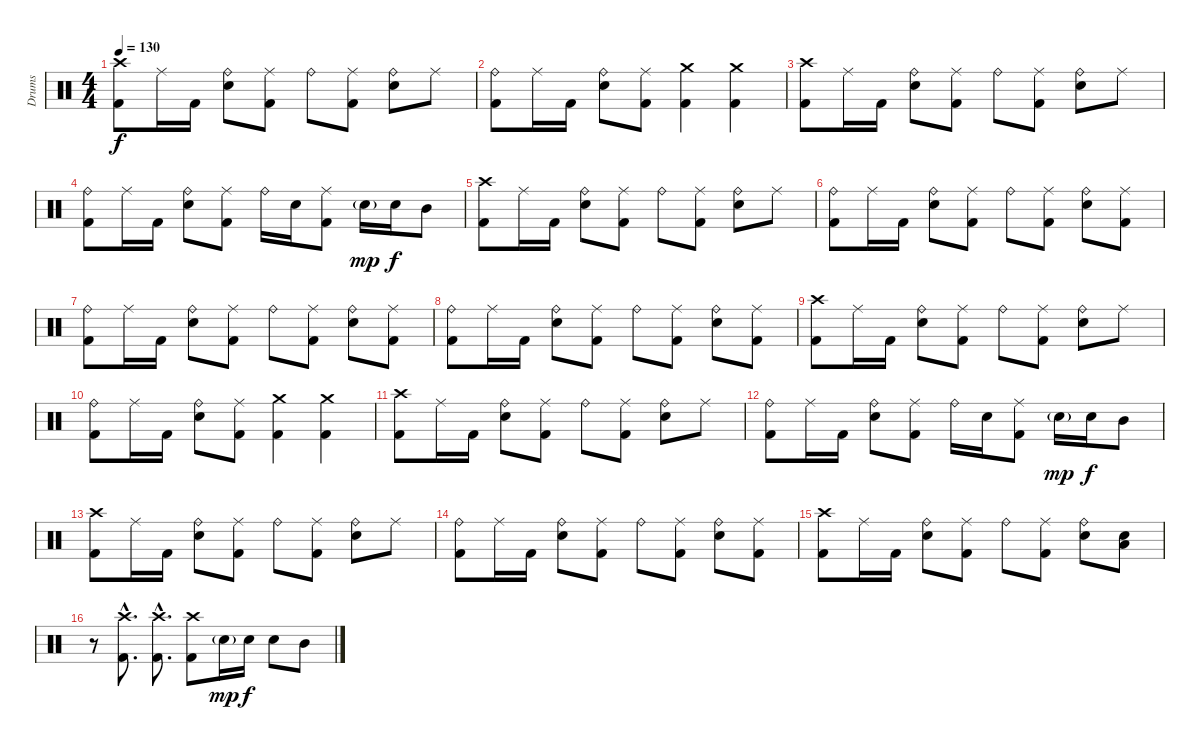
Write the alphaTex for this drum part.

\track ("Drums" "Drums") {instrument percussion}
\staff {score}
\articulation defaults
\ts (4 4)
\tempo 130
\clef neutral
\ks c
("Crash high (hit)" "Kick (hit) 2").8{dy f} "Ride (middle)".16 "Kick (hit) 2".16 ("Ride (bell)" "Electric Snare (hit)").8 ("Ride (middle)" "Kick (hit) 2").8 "Ride (bell)".8 ("Ride (middle)" "Kick (hit) 2").8 ("Ride (bell)" "Electric Snare (hit)").8 "Ride (middle)".8 |
("Ride (bell)" "Kick (hit) 2").8 "Ride (middle)".16 "Kick (hit) 2".16 ("Ride (bell)" "Electric Snare (hit)").8 ("Ride (middle)" "Kick (hit) 2").8 ("Crash medium (hit)" "Kick (hit) 2").4 ("Crash medium (hit)" "Kick (hit) 2").4 |
("Crash high (hit)" "Kick (hit) 2").8 "Ride (middle)".16 "Kick (hit) 2".16 ("Ride (bell)" "Electric Snare (hit)").8 ("Ride (middle)" "Kick (hit) 2").8 "Ride (bell)".8 ("Ride (middle)" "Kick (hit) 2").8 ("Ride (bell)" "Electric Snare (hit)").8 "Ride (middle)".8 |
("Ride (bell)" "Kick (hit) 2").8 "Ride (middle)".16 "Kick (hit) 2".16 ("Ride (bell)" "Electric Snare (hit)").8 ("Ride (middle)" "Kick (hit) 2").8 "Ride (bell)".16 "Electric Snare (hit)".16 ("Ride (middle)" "Kick (hit) 2").8 "Electric Snare (hit)"{g}.16{dy mp} "Electric Snare (hit)".16{dy f} "Mid Tom (hit)".8 |
("Crash high (hit)" "Kick (hit) 2").8 "Ride (middle)".16 "Kick (hit) 2".16 ("Ride (bell)" "Electric Snare (hit)").8 ("Ride (middle)" "Kick (hit) 2").8 "Ride (bell)".8 ("Ride (middle)" "Kick (hit) 2").8 ("Ride (bell)" "Electric Snare (hit)").8 "Ride (middle)".8 |
("Ride (bell)" "Kick (hit) 2").8 "Ride (middle)".16 "Kick (hit) 2".16 ("Ride (bell)" "Electric Snare (hit)").8 ("Ride (middle)" "Kick (hit) 2").8 "Ride (bell)".8 ("Ride (middle)" "Kick (hit) 2").8 ("Ride (bell)" "Electric Snare (hit)").8 ("Ride (middle)" "Kick (hit) 2").8 |
("Ride (bell)" "Kick (hit) 2").8 "Ride (middle)".16 "Kick (hit) 2".16 ("Ride (bell)" "Electric Snare (hit)").8 ("Ride (middle)" "Kick (hit) 2").8 "Ride (bell)".8 ("Ride (middle)" "Kick (hit) 2").8 ("Ride (bell)" "Electric Snare (hit)").8 ("Ride (middle)" "Kick (hit) 2").8 |
("Ride (bell)" "Kick (hit) 2").8 "Ride (middle)".16 "Kick (hit) 2".16 ("Ride (bell)" "Electric Snare (hit)").8 ("Ride (middle)" "Kick (hit) 2").8 "Ride (bell)".8 ("Ride (middle)" "Kick (hit) 2").8 ("Ride (bell)" "Electric Snare (hit)").8 ("Ride (middle)" "Kick (hit) 2").8 |
("Crash high (hit)" "Kick (hit) 2").8 "Ride (middle)".16 "Kick (hit) 2".16 ("Ride (bell)" "Electric Snare (hit)").8 ("Ride (middle)" "Kick (hit) 2").8 "Ride (bell)".8 ("Ride (middle)" "Kick (hit) 2").8 ("Ride (bell)" "Electric Snare (hit)").8 "Ride (middle)".8 |
("Ride (bell)" "Kick (hit) 2").8 "Ride (middle)".16 "Kick (hit) 2".16 ("Ride (bell)" "Electric Snare (hit)").8 ("Ride (middle)" "Kick (hit) 2").8 ("Crash medium (hit)" "Kick (hit) 2").4 ("Crash medium (hit)" "Kick (hit) 2").4 |
("Crash high (hit)" "Kick (hit) 2").8 "Ride (middle)".16 "Kick (hit) 2".16 ("Ride (bell)" "Electric Snare (hit)").8 ("Ride (middle)" "Kick (hit) 2").8 "Ride (bell)".8 ("Ride (middle)" "Kick (hit) 2").8 ("Ride (bell)" "Electric Snare (hit)").8 "Ride (middle)".8 |
("Ride (bell)" "Kick (hit) 2").8 "Ride (middle)".16 "Kick (hit) 2".16 ("Ride (bell)" "Electric Snare (hit)").8 ("Ride (middle)" "Kick (hit) 2").8 "Ride (bell)".16 "Electric Snare (hit)".16 ("Ride (middle)" "Kick (hit) 2").8 "Electric Snare (hit)"{g}.16{dy mp} "Electric Snare (hit)".16{dy f} "Mid Tom (hit)".8 |
("Crash high (hit)" "Kick (hit) 2").8 "Ride (middle)".16 "Kick (hit) 2".16 ("Ride (bell)" "Electric Snare (hit)").8 ("Ride (middle)" "Kick (hit) 2").8 "Ride (bell)".8 ("Ride (middle)" "Kick (hit) 2").8 ("Ride (bell)" "Electric Snare (hit)").8 "Ride (middle)".8 |
("Ride (bell)" "Kick (hit) 2").8 "Ride (middle)".16 "Kick (hit) 2".16 ("Ride (bell)" "Electric Snare (hit)").8 ("Ride (middle)" "Kick (hit) 2").8 "Ride (bell)".8 ("Ride (middle)" "Kick (hit) 2").8 ("Ride (bell)" "Electric Snare (hit)").8 ("Ride (middle)" "Kick (hit) 2").8 |
("Crash high (hit)" "Kick (hit) 2").8 "Ride (middle)".16 "Kick (hit) 2".16 ("Ride (bell)" "Electric Snare (hit)").8 ("Ride (middle)" "Kick (hit) 2").8 "Ride (bell)".8 ("Ride (middle)" "Kick (hit) 2").8 ("Ride (bell)" "Electric Snare (hit)").8 ("Low Floor Tom (hit)" "Electric Snare (hit)").8 |
r.8 ("Crash high (hit)"{hac} "Kick (hit) 2"{hac}).8{d} ("Crash high (hit)"{hac} "Kick (hit) 2"{hac}).8{d} ("Crash high (hit)" "Kick (hit) 2").8 "Electric Snare (hit)"{g}.16{dy mp} "Electric Snare (hit)".16{dy f} "Electric Snare (hit)".8 "Mid Tom (hit)".8
